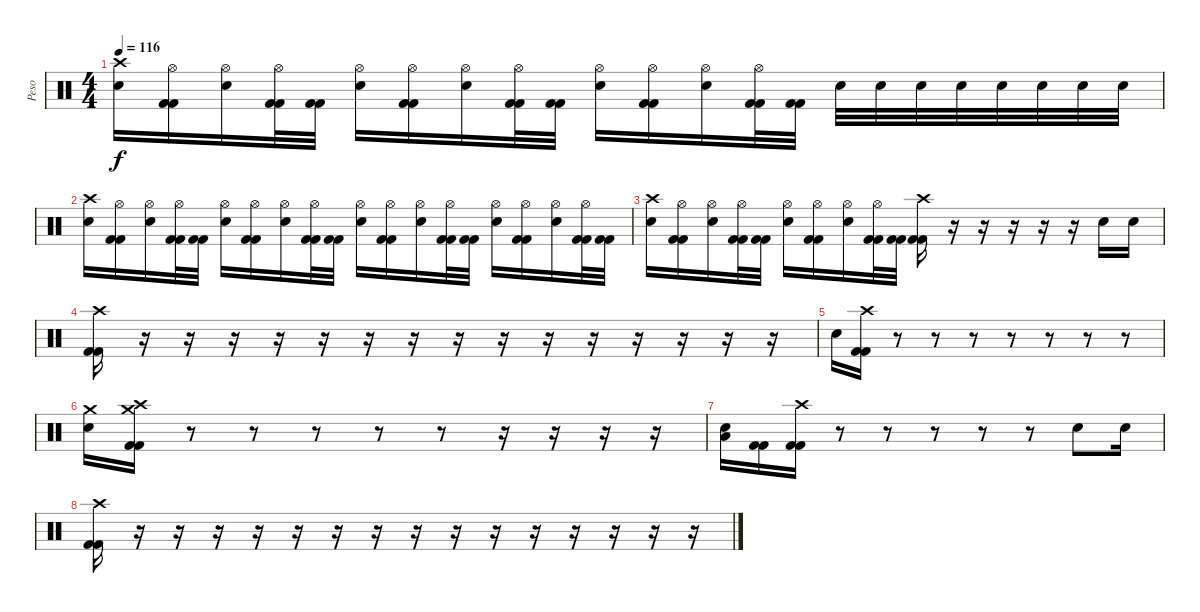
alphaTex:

\track ("Peso" "Peso") {instrument percussion}
\staff {score}
\articulation defaults
\ts (4 4)
\tempo 116
\clef neutral
\ks c
("Crash high (hit)" "Snare (hit) 2").16{dy f} ("Hi-Hat (open)" "Kick (hit) 2" "Kick (hit) 2").16 ("Hi-Hat (open)" "Snare (hit) 2").16 ("Hi-Hat (open)" "Kick (hit) 2" "Kick (hit) 2").32 ("Kick (hit) 2" "Kick (hit) 2").32 ("Hi-Hat (open)" "Snare (hit) 2").16 ("Hi-Hat (open)" "Kick (hit) 2" "Kick (hit) 2").16 ("Hi-Hat (open)" "Snare (hit) 2").16 ("Hi-Hat (open)" "Kick (hit) 2" "Kick (hit) 2").32 ("Kick (hit) 2" "Kick (hit) 2").32 ("Hi-Hat (open)" "Snare (hit) 2").16 ("Hi-Hat (open)" "Kick (hit) 2" "Kick (hit) 2").16 ("Hi-Hat (open)" "Snare (hit) 2").16 ("Hi-Hat (open)" "Kick (hit) 2" "Kick (hit) 2").32 ("Kick (hit) 2" "Kick (hit) 2").32 "Snare (hit) 2".32 "Snare (hit) 2".32 "Snare (hit) 2".32 "Snare (hit) 2".32 "Snare (hit) 2".32 "Snare (hit) 2".32 "Snare (hit) 2".32 "Snare (hit) 2".32 |
("Crash high (hit)" "Snare (hit) 2").16 ("Hi-Hat (open)" "Kick (hit) 2" "Kick (hit) 2").16 ("Hi-Hat (open)" "Snare (hit) 2").16 ("Hi-Hat (open)" "Kick (hit) 2" "Kick (hit) 2").32 ("Kick (hit) 2" "Kick (hit) 2").32 ("Hi-Hat (open)" "Snare (hit) 2").16 ("Hi-Hat (open)" "Kick (hit) 2" "Kick (hit) 2").16 ("Hi-Hat (open)" "Snare (hit) 2").16 ("Hi-Hat (open)" "Kick (hit) 2" "Kick (hit) 2").32 ("Kick (hit) 2" "Kick (hit) 2").32 ("Hi-Hat (open)" "Snare (hit) 2").16 ("Hi-Hat (open)" "Kick (hit) 2" "Kick (hit) 2").16 ("Hi-Hat (open)" "Snare (hit) 2").16 ("Hi-Hat (open)" "Kick (hit) 2" "Kick (hit) 2").32 ("Kick (hit) 2" "Kick (hit) 2").32 ("Hi-Hat (open)" "Snare (hit) 2").16 ("Hi-Hat (open)" "Kick (hit) 2" "Kick (hit) 2").16 ("Hi-Hat (open)" "Snare (hit) 2").16 ("Hi-Hat (open)" "Kick (hit) 2" "Kick (hit) 2").32 ("Kick (hit) 2" "Kick (hit) 2").32 |
("Crash high (hit)" "Snare (hit) 2").16 ("Hi-Hat (open)" "Kick (hit) 2" "Kick (hit) 2").16 ("Hi-Hat (open)" "Snare (hit) 2").16 ("Hi-Hat (open)" "Kick (hit) 2" "Kick (hit) 2").32 ("Kick (hit) 2" "Kick (hit) 2").32 ("Hi-Hat (open)" "Snare (hit) 2").16 ("Hi-Hat (open)" "Kick (hit) 2" "Kick (hit) 2").16 ("Hi-Hat (open)" "Snare (hit) 2").16 ("Hi-Hat (open)" "Kick (hit) 2" "Kick (hit) 2").32 ("Kick (hit) 2" "Kick (hit) 2").32 ("Crash high (hit)" "Kick (hit) 2" "Kick (hit) 2").16 r.16 r.16 r.16 r.16 r.16 "Snare (hit) 2".16 "Snare (hit) 2".16 |
("Crash high (hit)" "Kick (hit) 2" "Kick (hit) 2").16 r.16 r.16 r.16 r.16 r.16 r.16 r.16 r.16 r.16 r.16 r.16 r.16 r.16 r.16 r.16 |
"Snare (hit) 2".16 ("Crash high (hit)" "Kick (hit) 2" "Kick (hit) 2").16 r.8 r.8 r.8 r.8 r.8 r.8 r.8 |
("Crash medium (hit)" "Snare (hit) 2").16 ("Crash high (hit)" "Crash medium (hit)" "Kick (hit) 2" "Kick (hit) 2").16 r.8 r.8 r.8 r.8 r.8 r.16 r.16 r.16 r.16 |
("Low Floor Tom (hit)" "Snare (hit) 2").16 ("Kick (hit) 2" "Kick (hit) 2").16 ("Crash high (hit)" "Kick (hit) 2" "Kick (hit) 2").16 r.8 r.8 r.8 r.8 r.8 "Snare (hit) 2".8 "Snare (hit) 2".16 |
("Crash high (hit)" "Kick (hit) 2" "Kick (hit) 2").16 r.16 r.16 r.16 r.16 r.16 r.16 r.16 r.16 r.16 r.16 r.16 r.16 r.16 r.16 r.16
